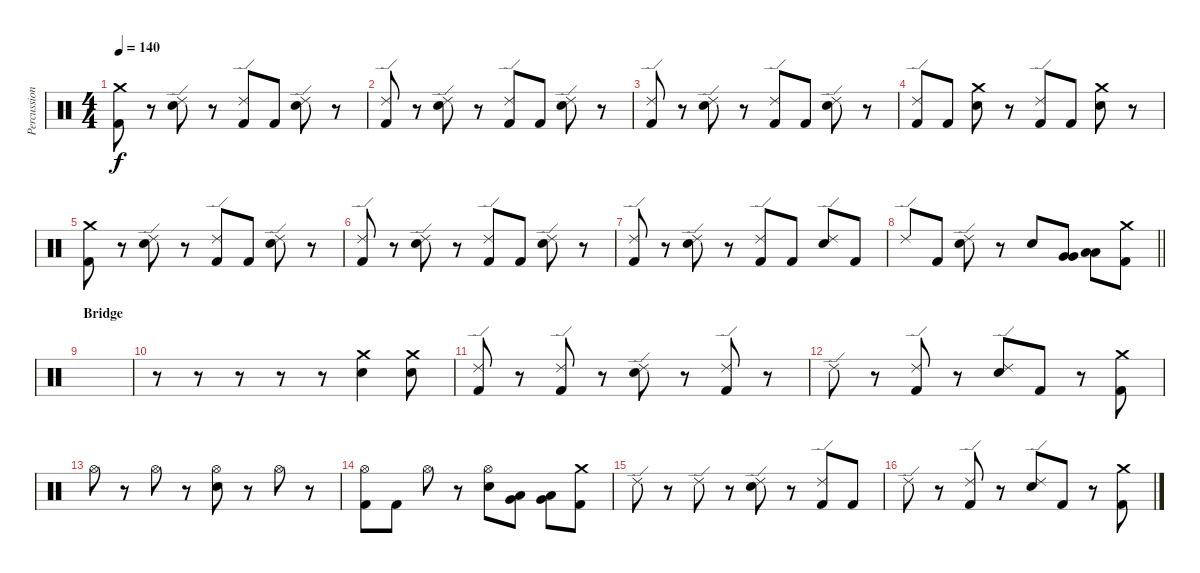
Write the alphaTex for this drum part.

\track ("Percussion" "Percussion") {instrument percussion}
\staff {score}
\articulation defaults
\ts (4 4)
\tempo 140
\clef neutral
\ks c
("Crash medium (hit)" "Kick (hit) 2").8{dy f} r.8 ("Ride (edge) 2" "Electric Snare (hit)").8 r.8 ("Ride (edge) 2" "Kick (hit) 2").8 "Kick (hit) 2".8 ("Ride (edge) 2" "Electric Snare (hit)").8 r.8 |
("Ride (edge) 2" "Kick (hit) 2").8 r.8 ("Ride (edge) 2" "Electric Snare (hit)").8 r.8 ("Ride (edge) 2" "Kick (hit) 2").8 "Kick (hit) 2".8 ("Ride (edge) 2" "Electric Snare (hit)").8 r.8 |
("Ride (edge) 2" "Kick (hit) 2").8 r.8 ("Ride (edge) 2" "Electric Snare (hit)").8 r.8 ("Ride (edge) 2" "Kick (hit) 2").8 "Kick (hit) 2".8 ("Ride (edge) 2" "Electric Snare (hit)").8 r.8 |
("Ride (edge) 2" "Kick (hit) 2").8 "Kick (hit) 2".8 ("Crash medium (hit)" "Electric Snare (hit)").8 r.8 ("Ride (edge) 2" "Kick (hit) 2").8 "Kick (hit) 2".8 ("Crash medium (hit)" "Electric Snare (hit)").8 r.8 |
("Crash medium (hit)" "Kick (hit) 2").8 r.8 ("Ride (edge) 2" "Electric Snare (hit)").8 r.8 ("Ride (edge) 2" "Kick (hit) 2").8 "Kick (hit) 2".8 ("Ride (edge) 2" "Electric Snare (hit)").8 r.8 |
("Ride (edge) 2" "Kick (hit) 2").8 r.8 ("Ride (edge) 2" "Electric Snare (hit)").8 r.8 ("Ride (edge) 2" "Kick (hit) 2").8 "Kick (hit) 2".8 ("Ride (edge) 2" "Electric Snare (hit)").8 r.8 |
("Ride (edge) 2" "Kick (hit) 2").8 r.8 ("Ride (edge) 2" "Electric Snare (hit)").8 r.8 ("Ride (edge) 2" "Kick (hit) 2").8 "Kick (hit) 2".8 ("Ride (edge) 2" "Electric Snare (hit)").8 "Kick (hit) 2".8 |
\barLineRight lightlight "Ride (edge) 2".8 "Kick (hit) 2".8
("Ride (edge) 2" "Electric Snare (hit)").8 r.8 "Electric Snare (hit)".8 ("Very Low Tom (hit)" "Very Low Tom (hit)").8 ("Low Tom (hit)" "Low Tom (hit)").8 ("Kick (hit) 2" "Crash medium (hit)").8 |
\section ("" "Bridge")
|
r.8 r.8 r.8 r.8 r.8 ("Crash medium (hit)" "Electric Snare (hit)").4 ("Crash medium (hit)" "Electric Snare (hit)").8 |
("Ride (edge) 2" "Kick (hit) 2").8 r.8 ("Ride (edge) 2" "Kick (hit) 2").8 r.8 ("Ride (edge) 2" "Electric Snare (hit)").8 r.8 ("Ride (edge) 2" "Kick (hit) 2").8 r.8 |
"Ride (edge) 2".8 r.8 ("Ride (edge) 2" "Kick (hit) 2").8 r.8 ("Ride (edge) 2" "Electric Snare (hit)").8 "Kick (hit) 2".8 r.8 ("Crash medium (hit)" "Kick (hit) 2").8 |
"Hi-Hat (open)".8 r.8 "Hi-Hat (open)".8 r.8 ("Hi-Hat (open)" "Electric Snare (hit)").8 r.8 "Hi-Hat (open)".8 r.8 |
("Hi-Hat (open)" "Kick (hit) 2").8 "Kick (hit) 2".8 "Hi-Hat (open)".8 r.8 ("Hi-Hat (open)" "Electric Snare (hit)").8 ("Very Low Tom (hit)" "Low Floor Tom (hit)").8 ("Low Floor Tom (hit)" "Very Low Tom (hit)").8 ("Crash medium (hit)" "Kick (hit) 2").8 |
"Ride (edge) 2".8 r.8 "Ride (edge) 2".8 r.8 ("Ride (edge) 2" "Electric Snare (hit)").8 r.8 ("Ride (edge) 2" "Kick (hit) 2").8 "Kick (hit) 2".8 |
"Ride (edge) 2".8 r.8 ("Ride (edge) 2" "Kick (hit) 2").8 r.8 ("Ride (edge) 2" "Electric Snare (hit)").8 "Kick (hit) 2".8 r.8 ("Crash medium (hit)" "Kick (hit) 2").8
